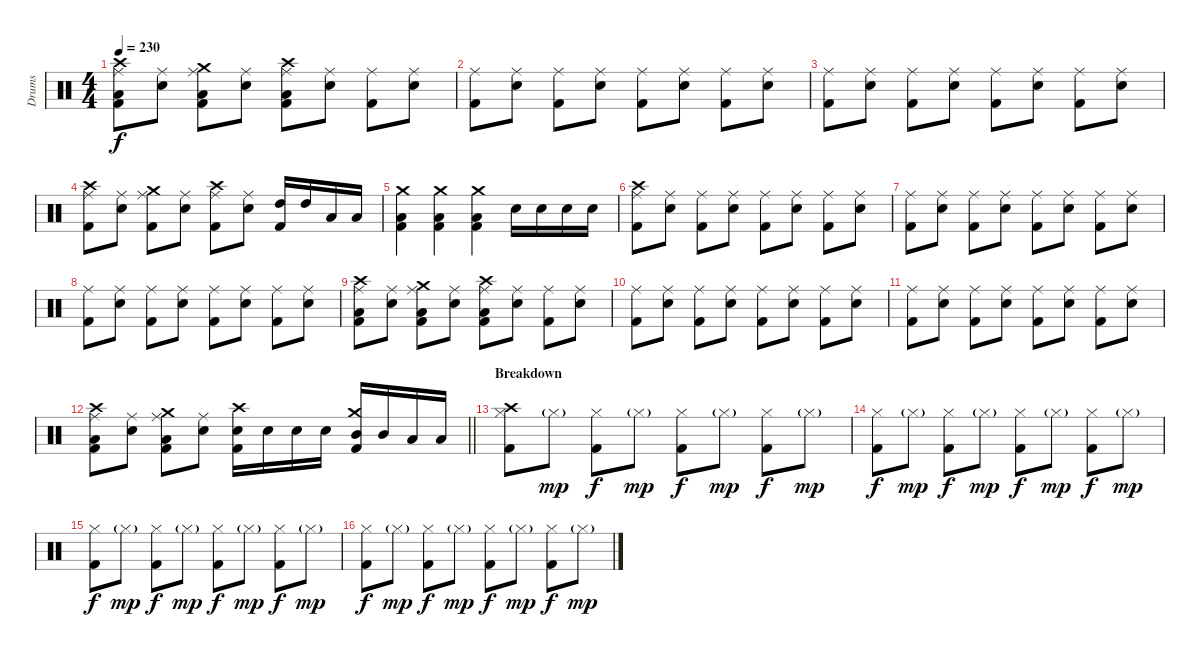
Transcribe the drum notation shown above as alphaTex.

\track ("Drums" "Drums") {instrument percussion}
\staff {score}
\articulation defaults
\ts (4 4)
\tempo 230
\clef neutral
\ks c
("Crash high (hit)" "Ride (middle)" "Low Floor Tom (hit)" "Kick (hit) 2").8{dy f} ("Ride (middle)" "Snare (hit) 2").8 ("Crash medium (hit)" "Ride (middle)" "Low Floor Tom (hit)" "Kick (hit) 2").8 ("Ride (middle)" "Snare (hit) 2").8 ("Crash high (hit)" "Ride (middle)" "Low Floor Tom (hit)" "Kick (hit) 2").8 ("Ride (middle)" "Snare (hit) 2").8 ("Ride (middle)" "Kick (hit) 2").8 ("Ride (middle)" "Snare (hit) 2").8 |
("Ride (middle)" "Kick (hit) 2").8 ("Ride (middle)" "Snare (hit) 2").8 ("Ride (middle)" "Kick (hit) 2").8 ("Ride (middle)" "Snare (hit) 2").8 ("Ride (middle)" "Kick (hit) 2").8 ("Ride (middle)" "Snare (hit) 2").8 ("Ride (middle)" "Kick (hit) 2").8 ("Ride (middle)" "Snare (hit) 2").8 |
("Ride (middle)" "Kick (hit) 2").8 ("Ride (middle)" "Snare (hit) 2").8 ("Ride (middle)" "Kick (hit) 2").8 ("Ride (middle)" "Snare (hit) 2").8 ("Ride (middle)" "Kick (hit) 2").8 ("Ride (middle)" "Snare (hit) 2").8 ("Ride (middle)" "Kick (hit) 2").8 ("Ride (middle)" "Snare (hit) 2").8 |
("Crash high (hit)" "Ride (middle)" "Kick (hit) 2").8 ("Ride (middle)" "Snare (hit) 2").8 ("Crash medium (hit)" "Ride (middle)" "Kick (hit) 2").8 ("Ride (middle)" "Snare (hit) 2").8 ("Crash high (hit)" "Ride (middle)" "Kick (hit) 2").8 ("Ride (middle)" "Snare (hit) 2").8 ("High Tom (hit)" "Kick (hit) 2").16 "High Tom (hit)".16 "Low Tom (hit)".16 "Low Tom (hit)".16 |
("Crash medium (hit)" "Low Floor Tom (hit)" "Kick (hit) 2").4 ("Crash medium (hit)" "Low Floor Tom (hit)" "Kick (hit) 2").4 ("Crash medium (hit)" "Low Floor Tom (hit)" "Kick (hit) 2").4 "Snare (hit) 2".16 "Snare (hit) 2".16 "Snare (hit) 2".16 "Snare (hit) 2".16 |
("Crash high (hit)" "Ride (middle)" "Kick (hit) 2").8 ("Ride (middle)" "Snare (hit) 2").8 ("Ride (middle)" "Kick (hit) 2").8 ("Ride (middle)" "Snare (hit) 2").8 ("Ride (middle)" "Kick (hit) 2").8 ("Ride (middle)" "Snare (hit) 2").8 ("Ride (middle)" "Kick (hit) 2").8 ("Ride (middle)" "Snare (hit) 2").8 |
("Ride (middle)" "Kick (hit) 2").8 ("Ride (middle)" "Snare (hit) 2").8 ("Ride (middle)" "Kick (hit) 2").8 ("Ride (middle)" "Snare (hit) 2").8 ("Ride (middle)" "Kick (hit) 2").8 ("Ride (middle)" "Snare (hit) 2").8 ("Ride (middle)" "Kick (hit) 2").8 ("Ride (middle)" "Snare (hit) 2").8 |
("Ride (middle)" "Kick (hit) 2").8 ("Ride (middle)" "Snare (hit) 2").8 ("Ride (middle)" "Kick (hit) 2").8 ("Ride (middle)" "Snare (hit) 2").8 ("Ride (middle)" "Kick (hit) 2").8 ("Ride (middle)" "Snare (hit) 2").8 ("Ride (middle)" "Kick (hit) 2").8 ("Ride (middle)" "Snare (hit) 2").8 |
("Crash high (hit)" "Ride (middle)" "Low Floor Tom (hit)" "Kick (hit) 2").8 ("Ride (middle)" "Snare (hit) 2").8 ("Crash medium (hit)" "Ride (middle)" "Low Floor Tom (hit)" "Kick (hit) 2").8 ("Ride (middle)" "Snare (hit) 2").8 ("Crash high (hit)" "Ride (middle)" "Low Floor Tom (hit)" "Kick (hit) 2").8 ("Ride (middle)" "Snare (hit) 2").8 ("Ride (middle)" "Kick (hit) 2").8 ("Ride (middle)" "Snare (hit) 2").8 |
("Ride (middle)" "Kick (hit) 2").8 ("Ride (middle)" "Snare (hit) 2").8 ("Ride (middle)" "Kick (hit) 2").8 ("Ride (middle)" "Snare (hit) 2").8 ("Ride (middle)" "Kick (hit) 2").8 ("Ride (middle)" "Snare (hit) 2").8 ("Ride (middle)" "Kick (hit) 2").8 ("Ride (middle)" "Snare (hit) 2").8 |
("Ride (middle)" "Kick (hit) 2").8 ("Ride (middle)" "Snare (hit) 2").8 ("Ride (middle)" "Kick (hit) 2").8 ("Ride (middle)" "Snare (hit) 2").8 ("Ride (middle)" "Kick (hit) 2").8 ("Ride (middle)" "Snare (hit) 2").8 ("Ride (middle)" "Kick (hit) 2").8 ("Ride (middle)" "Snare (hit) 2").8 |
\barLineRight lightlight
("Crash high (hit)" "Ride (middle)" "Low Floor Tom (hit)" "Kick (hit) 2").8 ("Ride (middle)" "Snare (hit) 2").8 ("Crash medium (hit)" "Ride (middle)" "Low Floor Tom (hit)" "Kick (hit) 2").8 ("Ride (middle)" "Snare (hit) 2").8 ("Crash high (hit)" "Snare (hit) 2" "Kick (hit) 2").16 "Snare (hit) 2".16 "Snare (hit) 2".16 "Snare (hit) 2".16 ("Crash medium (hit)" "Mid Tom (hit)" "Kick (hit) 2").16 "Mid Tom (hit)".16 "Low Tom (hit)".16 "Low Tom (hit)".16 |
\section ("" "Breakdown")
("Crash high (hit)" "Hi-Hat (closed)" "Kick (hit) 2").8 "Hi-Hat (closed)"{g}.8{dy mp} ("Hi-Hat (closed)" "Kick (hit) 2").8{dy f} "Hi-Hat (closed)"{g}.8{dy mp} ("Hi-Hat (closed)" "Kick (hit) 2").8{dy f} "Hi-Hat (closed)"{g}.8{dy mp} ("Hi-Hat (closed)" "Kick (hit) 2").8{dy f} "Hi-Hat (closed)"{g}.8{dy mp} |
("Hi-Hat (closed)" "Kick (hit) 2").8{dy f} "Hi-Hat (closed)"{g}.8{dy mp} ("Hi-Hat (closed)" "Kick (hit) 2").8{dy f} "Hi-Hat (closed)"{g}.8{dy mp} ("Hi-Hat (closed)" "Kick (hit) 2").8{dy f} "Hi-Hat (closed)"{g}.8{dy mp} ("Hi-Hat (closed)" "Kick (hit) 2").8{dy f} "Hi-Hat (closed)"{g}.8{dy mp} |
("Hi-Hat (closed)" "Kick (hit) 2").8{dy f} "Hi-Hat (closed)"{g}.8{dy mp} ("Hi-Hat (closed)" "Kick (hit) 2").8{dy f} "Hi-Hat (closed)"{g}.8{dy mp} ("Hi-Hat (closed)" "Kick (hit) 2").8{dy f} "Hi-Hat (closed)"{g}.8{dy mp} ("Hi-Hat (closed)" "Kick (hit) 2").8{dy f} "Hi-Hat (closed)"{g}.8{dy mp} |
("Hi-Hat (closed)" "Kick (hit) 2").8{dy f} "Hi-Hat (closed)"{g}.8{dy mp} ("Hi-Hat (closed)" "Kick (hit) 2").8{dy f} "Hi-Hat (closed)"{g}.8{dy mp} ("Hi-Hat (closed)" "Kick (hit) 2").8{dy f} "Hi-Hat (closed)"{g}.8{dy mp} ("Hi-Hat (closed)" "Kick (hit) 2").8{dy f} "Hi-Hat (closed)"{g}.8{dy mp}
